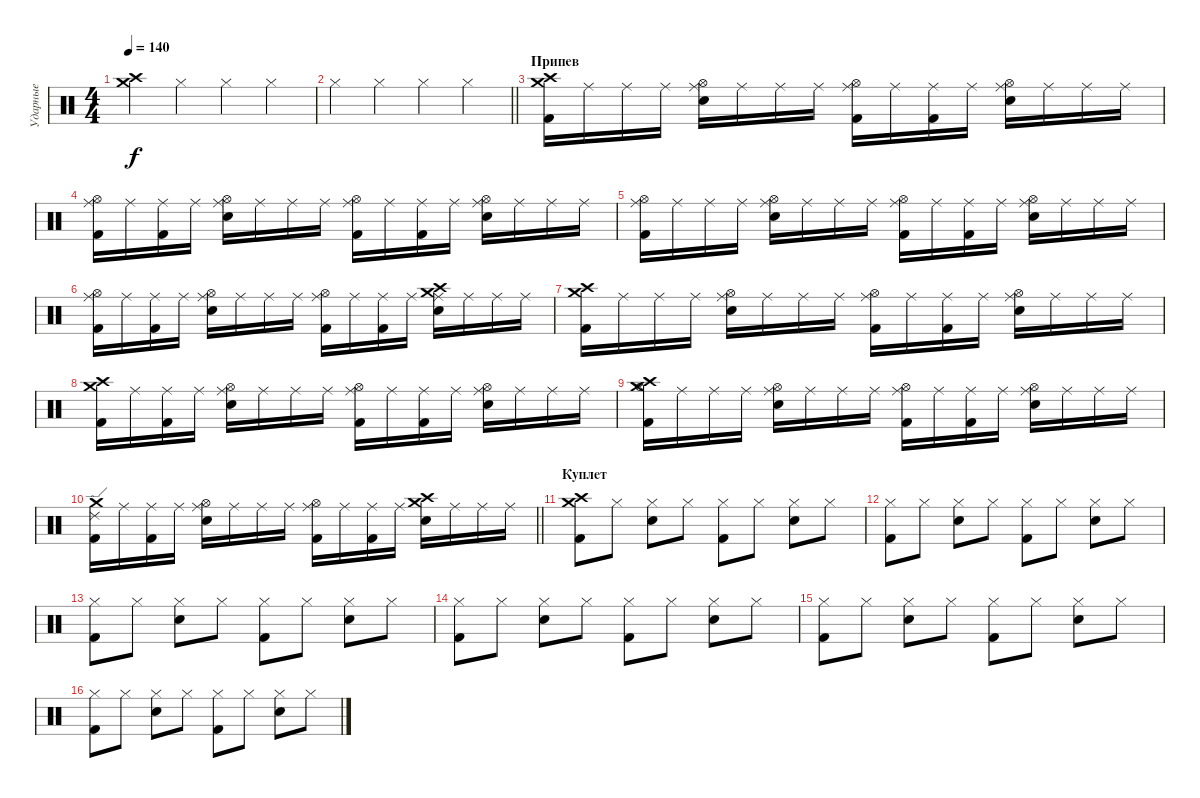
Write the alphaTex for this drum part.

\track ("Ударные" "Ударные") {instrument percussion}
\staff {score}
\articulation defaults
\ts (4 4)
\tempo 140
\clef neutral
\ks c
("Crash medium (hit)" "Crash high (hit)").4{dy f} "Hi-Hat (closed)".4 "Hi-Hat (closed)".4 "Hi-Hat (closed)".4 |
\barLineRight lightlight "Hi-Hat (closed)".4 "Hi-Hat (closed)".4 "Hi-Hat (closed)".4 "Hi-Hat (closed)".4
|
\section ("" "Припев")
("Crash medium (hit)" "Crash high (hit)" "Kick (hit) 2").16 "Ride (middle)".16 "Ride (middle)".16 "Ride (middle)".16 ("Ride (middle)" "Hi-Hat (open)" "Snare (hit) 2").16 "Ride (middle)".16 "Ride (middle)".16 "Ride (middle)".16 ("Ride (middle)" "Hi-Hat (open)" "Kick (hit) 2").16 "Ride (middle)".16 ("Ride (middle)" "Kick (hit) 2").16 "Ride (middle)".16 ("Ride (middle)" "Hi-Hat (open)" "Snare (hit) 2").16 "Ride (middle)".16 "Ride (middle)".16 "Ride (middle)".16 |
("Ride (middle)" "Hi-Hat (open)" "Kick (hit) 2").16 "Ride (middle)".16 ("Ride (middle)" "Kick (hit) 2").16 "Ride (middle)".16 ("Ride (middle)" "Hi-Hat (open)" "Snare (hit) 2").16 "Ride (middle)".16 "Ride (middle)".16 "Ride (middle)".16 ("Ride (middle)" "Hi-Hat (open)" "Kick (hit) 2").16 "Ride (middle)".16 ("Ride (middle)" "Kick (hit) 2").16 "Ride (middle)".16 ("Ride (middle)" "Hi-Hat (open)" "Snare (hit) 2").16 "Ride (middle)".16 "Ride (middle)".16 "Ride (middle)".16 |
("Ride (middle)" "Hi-Hat (open)" "Kick (hit) 2").16 "Ride (middle)".16 "Ride (middle)".16 "Ride (middle)".16 ("Ride (middle)" "Hi-Hat (open)" "Snare (hit) 2").16 "Ride (middle)".16 "Ride (middle)".16 "Ride (middle)".16 ("Ride (middle)" "Hi-Hat (open)" "Kick (hit) 2").16 "Ride (middle)".16 ("Ride (middle)" "Kick (hit) 2").16 "Ride (middle)".16 ("Ride (middle)" "Hi-Hat (open)" "Snare (hit) 2").16 "Ride (middle)".16 "Ride (middle)".16 "Ride (middle)".16 |
("Ride (middle)" "Hi-Hat (open)" "Kick (hit) 2").16 "Ride (middle)".16 ("Ride (middle)" "Kick (hit) 2").16 "Ride (middle)".16 ("Ride (middle)" "Hi-Hat (open)" "Snare (hit) 2").16 "Ride (middle)".16 "Ride (middle)".16 "Ride (middle)".16 ("Ride (middle)" "Hi-Hat (open)" "Kick (hit) 2").16 "Ride (middle)".16 ("Ride (middle)" "Kick (hit) 2").16 "Ride (middle)".16 ("Crash medium (hit)" "Crash high (hit)" "Ride (middle)" "Snare (hit) 2").16 "Ride (middle)".16 "Ride (middle)".16 "Ride (middle)".16 |
("Crash medium (hit)" "Crash high (hit)" "Kick (hit) 2").16 "Ride (middle)".16 "Ride (middle)".16 "Ride (middle)".16 ("Ride (middle)" "Hi-Hat (open)" "Snare (hit) 2").16 "Ride (middle)".16 "Ride (middle)".16 "Ride (middle)".16 ("Ride (middle)" "Hi-Hat (open)" "Kick (hit) 2").16 "Ride (middle)".16 ("Ride (middle)" "Kick (hit) 2").16 "Ride (middle)".16 ("Ride (middle)" "Hi-Hat (open)" "Snare (hit) 2").16 "Ride (middle)".16 "Ride (middle)".16 "Ride (middle)".16 |
("Crash medium (hit)" "Crash high (hit)" "Kick (hit) 2").16 "Ride (middle)".16 ("Ride (middle)" "Kick (hit) 2").16 "Ride (middle)".16 ("Ride (middle)" "Hi-Hat (open)" "Snare (hit) 2").16 "Ride (middle)".16 "Ride (middle)".16 "Ride (middle)".16 ("Ride (middle)" "Hi-Hat (open)" "Kick (hit) 2").16 "Ride (middle)".16 ("Ride (middle)" "Kick (hit) 2").16 "Ride (middle)".16 ("Ride (middle)" "Hi-Hat (open)" "Snare (hit) 2").16 "Ride (middle)".16 "Ride (middle)".16 "Ride (middle)".16 |
("Crash medium (hit)" "Crash high (hit)" "Hi-Hat (open)" "Kick (hit) 2").16 "Ride (middle)".16 "Ride (middle)".16 "Ride (middle)".16 ("Ride (middle)" "Hi-Hat (open)" "Snare (hit) 2").16 "Ride (middle)".16 "Ride (middle)".16 "Ride (middle)".16 ("Ride (middle)" "Hi-Hat (open)" "Kick (hit) 2").16 "Ride (middle)".16 ("Ride (middle)" "Kick (hit) 2").16 "Ride (middle)".16 ("Ride (middle)" "Hi-Hat (open)" "Snare (hit) 2").16 "Ride (middle)".16 "Ride (middle)".16 "Ride (middle)".16 |
\barLineRight lightlight
("Crash medium (hit)" "Ride (edge) 2" "Kick (hit) 2").16 "Ride (middle)".16 ("Ride (middle)" "Kick (hit) 2").16 "Ride (middle)".16 ("Ride (middle)" "Hi-Hat (open)" "Snare (hit) 2").16 "Ride (middle)".16 "Ride (middle)".16 "Ride (middle)".16 ("Ride (middle)" "Hi-Hat (open)" "Kick (hit) 2").16 "Ride (middle)".16 ("Ride (middle)" "Kick (hit) 2").16 "Ride (middle)".16 ("Crash high (hit)" "Crash medium (hit)" "Snare (hit) 2").16 "Ride (middle)".16 "Ride (middle)".16 "Ride (middle)".16 |
\section ("" "Куплет")
("Crash medium (hit)" "Crash high (hit)" "Kick (hit) 2").8 "Hi-Hat (closed)".8 ("Hi-Hat (closed)" "Snare (hit) 2").8 "Hi-Hat (closed)".8 ("Hi-Hat (closed)" "Kick (hit) 2").8 "Hi-Hat (closed)".8 ("Hi-Hat (closed)" "Snare (hit) 2").8 "Hi-Hat (closed)".8 |
("Hi-Hat (closed)" "Kick (hit) 2").8 "Hi-Hat (closed)".8 ("Hi-Hat (closed)" "Snare (hit) 2").8 "Hi-Hat (closed)".8 ("Hi-Hat (closed)" "Kick (hit) 2").8 "Hi-Hat (closed)".8 ("Hi-Hat (closed)" "Snare (hit) 2").8 "Hi-Hat (closed)".8 |
("Hi-Hat (closed)" "Kick (hit) 2").8 "Hi-Hat (closed)".8 ("Hi-Hat (closed)" "Snare (hit) 2").8 "Hi-Hat (closed)".8 ("Hi-Hat (closed)" "Kick (hit) 2").8 "Hi-Hat (closed)".8 ("Hi-Hat (closed)" "Snare (hit) 2").8 "Hi-Hat (closed)".8 |
("Hi-Hat (closed)" "Kick (hit) 2").8 "Hi-Hat (closed)".8 ("Hi-Hat (closed)" "Snare (hit) 2").8 "Hi-Hat (closed)".8 ("Hi-Hat (closed)" "Kick (hit) 2").8 "Hi-Hat (closed)".8 ("Hi-Hat (closed)" "Snare (hit) 2").8 "Hi-Hat (closed)".8 |
("Hi-Hat (closed)" "Kick (hit) 2").8 "Hi-Hat (closed)".8 ("Hi-Hat (closed)" "Snare (hit) 2").8 "Hi-Hat (closed)".8 ("Hi-Hat (closed)" "Kick (hit) 2").8 "Hi-Hat (closed)".8 ("Hi-Hat (closed)" "Snare (hit) 2").8 "Hi-Hat (closed)".8 |
("Hi-Hat (closed)" "Kick (hit) 2").8 "Hi-Hat (closed)".8 ("Hi-Hat (closed)" "Snare (hit) 2").8 "Hi-Hat (closed)".8 ("Hi-Hat (closed)" "Kick (hit) 2").8 "Hi-Hat (closed)".8 ("Hi-Hat (closed)" "Snare (hit) 2").8 "Hi-Hat (closed)".8
